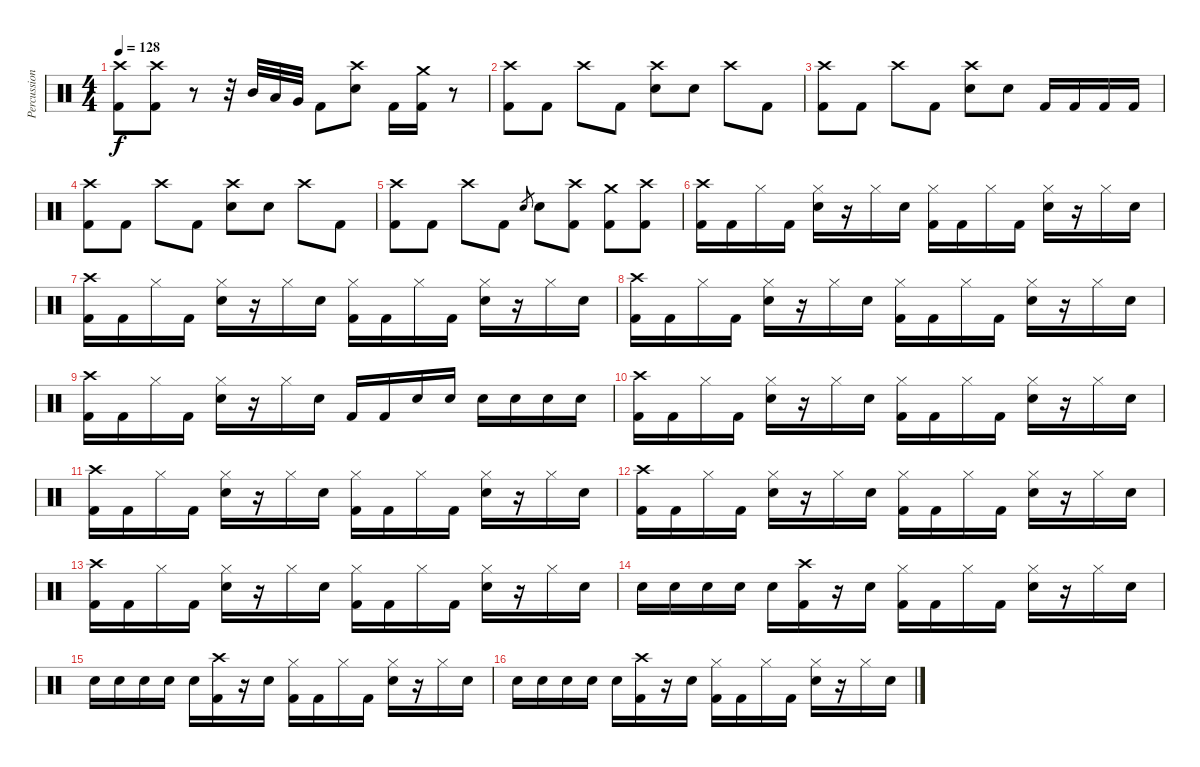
\track ("Percussion" "Percussion") {instrument percussion}
\staff {score}
\articulation defaults
\ts (4 4)
\tempo 128
\clef neutral
\ks c
("Crash high (hit)" "Kick (hit) 2").8{dy f} ("Crash high (hit)" "Kick (hit) 2").8 r.8 r.32 "Mid Tom (hit)".32 "Low Tom (hit)".32 "Very Low Tom (hit)".32 "Kick (hit) 2".8 ("Crash high (hit)" "Snare (hit) 2").8 "Kick (hit) 2".16 ("Crash medium (hit)" "Kick (hit) 2").16 r.8 |
("Crash high (hit)" "Kick (hit) 2").8 "Kick (hit) 2".8 "Crash high (hit)".8 "Kick (hit) 2".8 ("Crash high (hit)" "Snare (hit) 2").8 "Snare (hit) 2".8 "Crash high (hit)".8 "Kick (hit) 2".8 |
("Crash high (hit)" "Kick (hit) 2").8 "Kick (hit) 2".8 "Crash high (hit)".8 "Kick (hit) 2".8 ("Crash high (hit)" "Snare (hit) 2").8 "Snare (hit) 2".8 "Kick (hit) 2".16 "Kick (hit) 2".16 "Kick (hit) 2".16 "Kick (hit) 2".16 |
("Crash high (hit)" "Kick (hit) 2").8 "Kick (hit) 2".8 "Crash high (hit)".8 "Kick (hit) 2".8 ("Crash high (hit)" "Snare (hit) 2").8 "Snare (hit) 2".8 "Crash high (hit)".8 "Kick (hit) 2".8 |
("Crash high (hit)" "Kick (hit) 2").8 "Kick (hit) 2".8 "Crash high (hit)".8 "Kick (hit) 2".8 "Snare (hit) 2".8{gr} "Snare (hit) 2".8 ("Crash high (hit)" "Kick (hit) 2").8 ("Crash medium (hit)" "Kick (hit) 2").8 ("Crash high (hit)" "Kick (hit) 2").8 |
("Crash high (hit)" "Kick (hit) 2").16 "Kick (hit) 2".16 "Hi-Hat (closed)".16 "Kick (hit) 2".16 ("Hi-Hat (closed)" "Snare (hit) 2").16 r.16 "Hi-Hat (closed)".16 "Snare (hit) 2".16 ("Hi-Hat (closed)" "Kick (hit) 2").16 "Kick (hit) 2".16 "Hi-Hat (closed)".16 "Kick (hit) 2".16 ("Hi-Hat (closed)" "Snare (hit) 2").16 r.16 "Hi-Hat (closed)".16 "Snare (hit) 2".16 |
("Crash high (hit)" "Kick (hit) 2").16 "Kick (hit) 2".16 "Hi-Hat (closed)".16 "Kick (hit) 2".16 ("Hi-Hat (closed)" "Snare (hit) 2").16 r.16 "Hi-Hat (closed)".16 "Snare (hit) 2".16 ("Hi-Hat (closed)" "Kick (hit) 2").16 "Kick (hit) 2".16 "Hi-Hat (closed)".16 "Kick (hit) 2".16 ("Hi-Hat (closed)" "Snare (hit) 2").16 r.16 "Hi-Hat (closed)".16 "Snare (hit) 2".16 |
("Crash high (hit)" "Kick (hit) 2").16 "Kick (hit) 2".16 "Hi-Hat (closed)".16 "Kick (hit) 2".16 ("Hi-Hat (closed)" "Snare (hit) 2").16 r.16 "Hi-Hat (closed)".16 "Snare (hit) 2".16 ("Hi-Hat (closed)" "Kick (hit) 2").16 "Kick (hit) 2".16 "Hi-Hat (closed)".16 "Kick (hit) 2".16 ("Hi-Hat (closed)" "Snare (hit) 2").16 r.16 "Hi-Hat (closed)".16 "Snare (hit) 2".16 |
("Crash high (hit)" "Kick (hit) 2").16 "Kick (hit) 2".16 "Hi-Hat (closed)".16 "Kick (hit) 2".16 ("Hi-Hat (closed)" "Snare (hit) 2").16 r.16 "Hi-Hat (closed)".16 "Snare (hit) 2".16 "Kick (hit) 2".16 "Kick (hit) 2".16 "Snare (hit) 2".16 "Snare (hit) 2".16 "Snare (hit) 2".16 "Snare (hit) 2".16 "Snare (hit) 2".16 "Snare (hit) 2".16 |
("Crash high (hit)" "Kick (hit) 2").16 "Kick (hit) 2".16 "Hi-Hat (closed)".16 "Kick (hit) 2".16 ("Hi-Hat (closed)" "Snare (hit) 2").16 r.16 "Hi-Hat (closed)".16 "Snare (hit) 2".16 ("Hi-Hat (closed)" "Kick (hit) 2").16 "Kick (hit) 2".16 "Hi-Hat (closed)".16 "Kick (hit) 2".16 ("Hi-Hat (closed)" "Snare (hit) 2").16 r.16 "Hi-Hat (closed)".16 "Snare (hit) 2".16 |
("Crash high (hit)" "Kick (hit) 2").16 "Kick (hit) 2".16 "Hi-Hat (closed)".16 "Kick (hit) 2".16 ("Hi-Hat (closed)" "Snare (hit) 2").16 r.16 "Hi-Hat (closed)".16 "Snare (hit) 2".16 ("Hi-Hat (closed)" "Kick (hit) 2").16 "Kick (hit) 2".16 "Hi-Hat (closed)".16 "Kick (hit) 2".16 ("Hi-Hat (closed)" "Snare (hit) 2").16 r.16 "Hi-Hat (closed)".16 "Snare (hit) 2".16 |
("Crash high (hit)" "Kick (hit) 2").16 "Kick (hit) 2".16 "Hi-Hat (closed)".16 "Kick (hit) 2".16 ("Hi-Hat (closed)" "Snare (hit) 2").16 r.16 "Hi-Hat (closed)".16 "Snare (hit) 2".16 ("Hi-Hat (closed)" "Kick (hit) 2").16 "Kick (hit) 2".16 "Hi-Hat (closed)".16 "Kick (hit) 2".16 ("Hi-Hat (closed)" "Snare (hit) 2").16 r.16 "Hi-Hat (closed)".16 "Snare (hit) 2".16 |
("Crash high (hit)" "Kick (hit) 2").16 "Kick (hit) 2".16 "Hi-Hat (closed)".16 "Kick (hit) 2".16 ("Hi-Hat (closed)" "Snare (hit) 2").16 r.16 "Hi-Hat (closed)".16 "Snare (hit) 2".16 ("Hi-Hat (closed)" "Kick (hit) 2").16 "Kick (hit) 2".16 "Hi-Hat (closed)".16 "Kick (hit) 2".16 ("Hi-Hat (closed)" "Snare (hit) 2").16 r.16 "Hi-Hat (closed)".16 "Snare (hit) 2".16 |
"Snare (hit) 2".16 "Snare (hit) 2".16 "Snare (hit) 2".16 "Snare (hit) 2".16 "Snare (hit) 2".16 ("Crash high (hit)" "Kick (hit) 2").16 r.16 "Snare (hit) 2".16 ("Hi-Hat (closed)" "Kick (hit) 2").16 "Kick (hit) 2".16 "Hi-Hat (closed)".16 "Kick (hit) 2".16 ("Hi-Hat (closed)" "Snare (hit) 2").16 r.16 "Hi-Hat (closed)".16 "Snare (hit) 2".16 |
"Snare (hit) 2".16 "Snare (hit) 2".16 "Snare (hit) 2".16 "Snare (hit) 2".16 "Snare (hit) 2".16 ("Crash high (hit)" "Kick (hit) 2").16 r.16 "Snare (hit) 2".16 ("Hi-Hat (closed)" "Kick (hit) 2").16 "Kick (hit) 2".16 "Hi-Hat (closed)".16 "Kick (hit) 2".16 ("Hi-Hat (closed)" "Snare (hit) 2").16 r.16 "Hi-Hat (closed)".16 "Snare (hit) 2".16 |
"Snare (hit) 2".16 "Snare (hit) 2".16 "Snare (hit) 2".16 "Snare (hit) 2".16 "Snare (hit) 2".16 ("Crash high (hit)" "Kick (hit) 2").16 r.16 "Snare (hit) 2".16 ("Hi-Hat (closed)" "Kick (hit) 2").16 "Kick (hit) 2".16 "Hi-Hat (closed)".16 "Kick (hit) 2".16 ("Hi-Hat (closed)" "Snare (hit) 2").16 r.16 "Hi-Hat (closed)".16 "Snare (hit) 2".16
